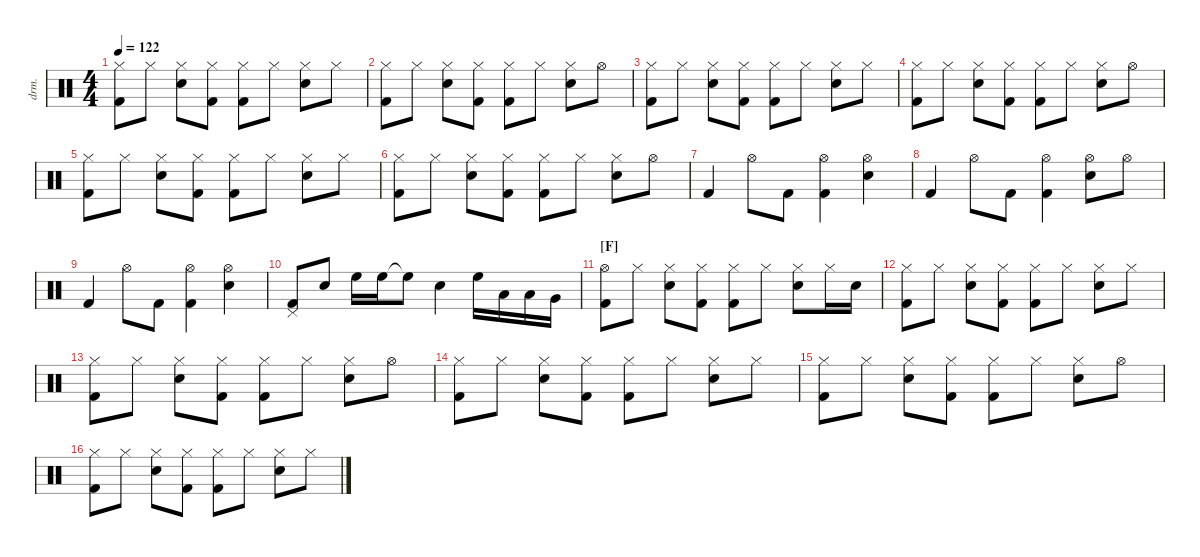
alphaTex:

\defaultSystemsLayout 4
\hideDynamics
\bracketExtendMode nobrackets
\track ("Drumkit" "drm.") {defaultSystemsLayout 4 instrument percussion}
\staff {score}
\articulation defaults
\ts (4 4)
\tempo 122
\clef neutral
\ks c
("Hi-Hat (closed)" "Kick (hit) 2").8{dy f beam Down} "Hi-Hat (closed)".8{beam Down} ("Hi-Hat (closed)" "Snare (hit) 2").8{beam Down} ("Hi-Hat (closed)" "Kick (hit) 2").8{beam Down} ("Hi-Hat (closed)" "Kick (hit) 2").8{beam Down} "Hi-Hat (closed)".8{beam Down} ("Hi-Hat (closed)" "Snare (hit) 2").8{beam Down} "Hi-Hat (closed)".8{beam Down} |
("Hi-Hat (closed)" "Kick (hit) 2").8{beam Down} "Hi-Hat (closed)".8{beam Down} ("Hi-Hat (closed)" "Snare (hit) 2").8{beam Down} ("Hi-Hat (closed)" "Kick (hit) 2").8{beam Down} ("Hi-Hat (closed)" "Kick (hit) 2").8{beam Down} "Hi-Hat (closed)".8{beam Down} ("Hi-Hat (closed)" "Snare (hit) 2").8{beam Down} "Hi-Hat (open)".8{beam Down} |
("Hi-Hat (closed)" "Kick (hit) 2").8{beam Down} "Hi-Hat (closed)".8{beam Down} ("Hi-Hat (closed)" "Snare (hit) 2").8{beam Down} ("Hi-Hat (closed)" "Kick (hit) 2").8{beam Down} ("Hi-Hat (closed)" "Kick (hit) 2").8{beam Down} "Hi-Hat (closed)".8{beam Down} ("Hi-Hat (closed)" "Snare (hit) 2").8{beam Down} "Hi-Hat (closed)".8{beam Down} |
("Hi-Hat (closed)" "Kick (hit) 2").8{beam Down} "Hi-Hat (closed)".8{beam Down} ("Hi-Hat (closed)" "Snare (hit) 2").8{beam Down} ("Hi-Hat (closed)" "Kick (hit) 2").8{beam Down} ("Hi-Hat (closed)" "Kick (hit) 2").8{beam Down} "Hi-Hat (closed)".8{beam Down} ("Hi-Hat (closed)" "Snare (hit) 2").8{beam Down} "Hi-Hat (open)".8{beam Down} |
("Hi-Hat (closed)" "Kick (hit) 2").8{beam Down} "Hi-Hat (closed)".8{beam Down} ("Hi-Hat (closed)" "Snare (hit) 2").8{beam Down} ("Hi-Hat (closed)" "Kick (hit) 2").8{beam Down} ("Hi-Hat (closed)" "Kick (hit) 2").8{beam Down} "Hi-Hat (closed)".8{beam Down} ("Hi-Hat (closed)" "Snare (hit) 2").8{beam Down} "Hi-Hat (closed)".8{beam Down} |
("Hi-Hat (closed)" "Kick (hit) 2").8{beam Down} "Hi-Hat (closed)".8{beam Down} ("Hi-Hat (closed)" "Snare (hit) 2").8{beam Down} ("Hi-Hat (closed)" "Kick (hit) 2").8{beam Down} ("Hi-Hat (closed)" "Kick (hit) 2").8{beam Down} "Hi-Hat (closed)".8{beam Down} ("Hi-Hat (closed)" "Snare (hit) 2").8{beam Down} "Hi-Hat (open)".8{beam Down} |
"Kick (hit) 2".4{beam Up} "Hi-Hat (open)".8{beam Down} "Kick (hit) 2".8{beam Down} ("Hi-Hat (open)" "Kick (hit) 2").4{beam Down} ("Hi-Hat (open)" "Snare (hit) 2").4{beam Down} |
"Kick (hit) 2".4{beam Up} "Hi-Hat (open)".8{beam Down} "Kick (hit) 2".8{beam Down} ("Hi-Hat (open)" "Kick (hit) 2").4{beam Down} ("Hi-Hat (open)" "Snare (hit) 2").8{beam Down} "Hi-Hat (open)".8{beam Down} |
"Kick (hit) 2".4{beam Up} "Hi-Hat (open)".8{beam Down} "Kick (hit) 2".8{beam Down} ("Hi-Hat (open)" "Kick (hit) 2").4{beam Down} ("Hi-Hat (open)" "Snare (hit) 2").4{beam Down} |
("Pedal Hi-Hat (hit)" "Kick (hit) 2").8{beam Up} "Snare (hit) 2".8{beam Up} "High Floor Tom (hit)".16{beam Down} "High Floor Tom (hit)".16{beam Down} "High Floor Tom (hit)"{t}.8{beam Down} "Snare (hit) 2".4{beam Down} "High Floor Tom (hit)".16{beam Down} "Low Tom (hit)".16{beam Down} "Low Tom (hit)".16{beam Down} "Very Low Tom (hit)".16{beam Down} |
\section ("F" "")
("Hi-Hat (open)" "Kick (hit) 2").8{beam Down} "Hi-Hat (closed)".8{beam Down} ("Hi-Hat (closed)" "Snare (hit) 2").8{beam Down} ("Hi-Hat (closed)" "Kick (hit) 2").8{beam Down} ("Hi-Hat (closed)" "Kick (hit) 2").8{beam Down} "Hi-Hat (closed)".8{beam Down} ("Hi-Hat (closed)" "Snare (hit) 2").8{beam Down} "Hi-Hat (closed)".16{beam Down} "Snare (hit) 2".16{beam Down} |
("Hi-Hat (closed)" "Kick (hit) 2").8{beam Down} "Hi-Hat (closed)".8{beam Down} ("Hi-Hat (closed)" "Snare (hit) 2").8{beam Down} ("Hi-Hat (closed)" "Kick (hit) 2").8{beam Down} ("Hi-Hat (closed)" "Kick (hit) 2").8{beam Down} "Hi-Hat (closed)".8{beam Down} ("Hi-Hat (closed)" "Snare (hit) 2").8{beam Down} "Hi-Hat (closed)".8{beam Down} |
("Hi-Hat (closed)" "Kick (hit) 2").8{beam Down} "Hi-Hat (closed)".8{beam Down} ("Hi-Hat (closed)" "Snare (hit) 2").8{beam Down} ("Hi-Hat (closed)" "Kick (hit) 2").8{beam Down} ("Hi-Hat (closed)" "Kick (hit) 2").8{beam Down} "Hi-Hat (closed)".8{beam Down} ("Hi-Hat (closed)" "Snare (hit) 2").8{beam Down} "Hi-Hat (open)".8{beam Down} |
("Hi-Hat (closed)" "Kick (hit) 2").8{beam Down} "Hi-Hat (closed)".8{beam Down} ("Hi-Hat (closed)" "Snare (hit) 2").8{beam Down} ("Hi-Hat (closed)" "Kick (hit) 2").8{beam Down} ("Hi-Hat (closed)" "Kick (hit) 2").8{beam Down} "Hi-Hat (closed)".8{beam Down} ("Hi-Hat (closed)" "Snare (hit) 2").8{beam Down} "Hi-Hat (closed)".8{beam Down} |
("Hi-Hat (closed)" "Kick (hit) 2").8{beam Down} "Hi-Hat (closed)".8{beam Down} ("Hi-Hat (closed)" "Snare (hit) 2").8{beam Down} ("Hi-Hat (closed)" "Kick (hit) 2").8{beam Down} ("Hi-Hat (closed)" "Kick (hit) 2").8{beam Down} "Hi-Hat (closed)".8{beam Down} ("Hi-Hat (closed)" "Snare (hit) 2").8{beam Down} "Hi-Hat (open)".8{beam Down} |
("Hi-Hat (closed)" "Kick (hit) 2").8{beam Down} "Hi-Hat (closed)".8{beam Down} ("Hi-Hat (closed)" "Snare (hit) 2").8{beam Down} ("Hi-Hat (closed)" "Kick (hit) 2").8{beam Down} ("Hi-Hat (closed)" "Kick (hit) 2").8{beam Down} "Hi-Hat (closed)".8{beam Down} ("Hi-Hat (closed)" "Snare (hit) 2").8{beam Down} "Hi-Hat (closed)".8{beam Down}
